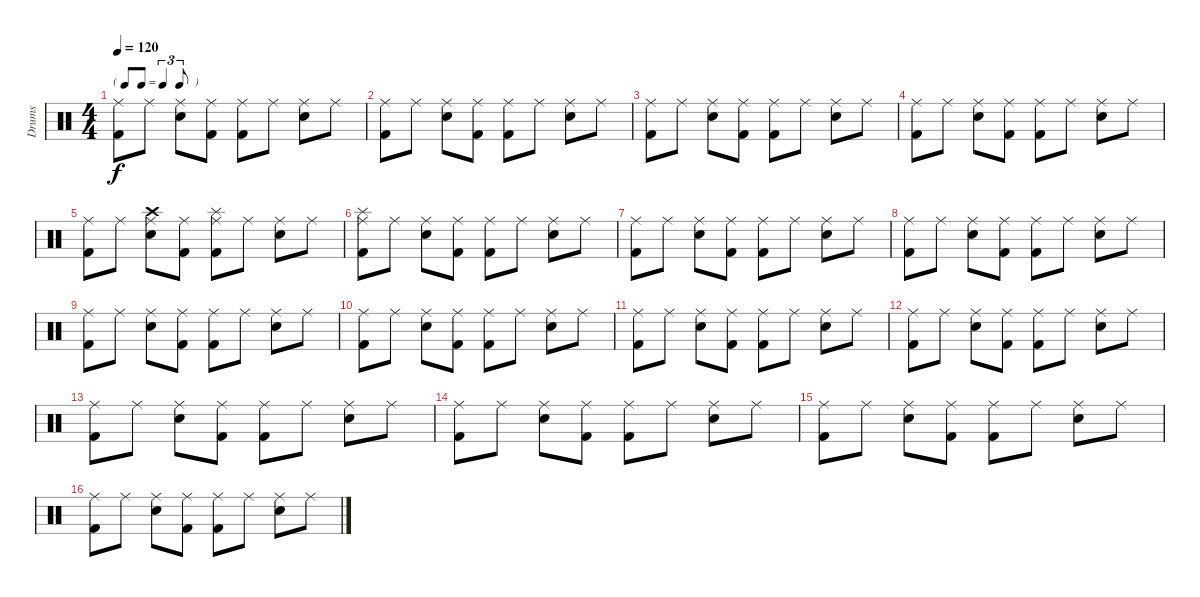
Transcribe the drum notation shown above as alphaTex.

\track ("Drums" "Drums") {instrument percussion}
\staff {score}
\articulation defaults
\ts (4 4)
\tf triplet8th
\tempo 120
\clef neutral
\ks c
("Ride (middle)" "Kick (hit) 2").8{dy f} "Ride (middle)".8 ("Ride (middle)" "Electric Snare (hit)").8 ("Ride (middle)" "Kick (hit) 2").8 ("Ride (middle)" "Kick (hit) 2").8 "Ride (middle)".8 ("Ride (middle)" "Electric Snare (hit)").8 "Ride (middle)".8 |
("Ride (middle)" "Kick (hit) 2").8 "Ride (middle)".8 ("Ride (middle)" "Electric Snare (hit)").8 ("Ride (middle)" "Kick (hit) 2").8 ("Ride (middle)" "Kick (hit) 2").8 "Ride (middle)".8 ("Ride (middle)" "Electric Snare (hit)").8 "Ride (middle)".8 |
("Ride (middle)" "Kick (hit) 2").8 "Ride (middle)".8 ("Ride (middle)" "Electric Snare (hit)").8 ("Ride (middle)" "Kick (hit) 2").8 ("Ride (middle)" "Kick (hit) 2").8 "Ride (middle)".8 ("Ride (middle)" "Electric Snare (hit)").8 "Ride (middle)".8 |
("Ride (middle)" "Kick (hit) 2").8 "Ride (middle)".8 ("Ride (middle)" "Electric Snare (hit)").8 ("Ride (middle)" "Kick (hit) 2").8 ("Ride (middle)" "Kick (hit) 2").8 "Ride (middle)".8 ("Ride (middle)" "Electric Snare (hit)").8 "Ride (middle)".8 |
("Ride (middle)" "Kick (hit) 2").8 "Ride (middle)".8 ("Ride (middle)" "Electric Snare (hit)" "Crash high (hit)").8 ("Ride (middle)" "Kick (hit) 2").8 ("Ride (middle)" "Kick (hit) 2" "Splash (hit)").8 "Ride (middle)".8 ("Ride (middle)" "Electric Snare (hit)").8 "Ride (middle)".8 |
("Ride (middle)" "Kick (hit) 2" "Splash (hit)").8 "Ride (middle)".8 ("Ride (middle)" "Electric Snare (hit)").8 ("Ride (middle)" "Kick (hit) 2").8 ("Ride (middle)" "Kick (hit) 2").8 "Ride (middle)".8 ("Ride (middle)" "Electric Snare (hit)").8 "Ride (middle)".8 |
("Ride (middle)" "Kick (hit) 2").8 "Ride (middle)".8 ("Ride (middle)" "Electric Snare (hit)").8 ("Ride (middle)" "Kick (hit) 2").8 ("Ride (middle)" "Kick (hit) 2").8 "Ride (middle)".8 ("Ride (middle)" "Electric Snare (hit)").8 "Ride (middle)".8 |
("Ride (middle)" "Kick (hit) 2").8 "Ride (middle)".8 ("Ride (middle)" "Electric Snare (hit)").8 ("Ride (middle)" "Kick (hit) 2").8 ("Ride (middle)" "Kick (hit) 2").8 "Ride (middle)".8 ("Ride (middle)" "Electric Snare (hit)").8 "Ride (middle)".8 |
("Ride (middle)" "Kick (hit) 2").8 "Ride (middle)".8 ("Ride (middle)" "Electric Snare (hit)").8 ("Ride (middle)" "Kick (hit) 2").8 ("Ride (middle)" "Kick (hit) 2").8 "Ride (middle)".8 ("Ride (middle)" "Electric Snare (hit)").8 "Ride (middle)".8 |
("Ride (middle)" "Kick (hit) 2").8 "Ride (middle)".8 ("Ride (middle)" "Electric Snare (hit)").8 ("Ride (middle)" "Kick (hit) 2").8 ("Ride (middle)" "Kick (hit) 2").8 "Ride (middle)".8 ("Ride (middle)" "Electric Snare (hit)").8 "Ride (middle)".8 |
("Ride (middle)" "Kick (hit) 2").8 "Ride (middle)".8 ("Ride (middle)" "Electric Snare (hit)").8 ("Ride (middle)" "Kick (hit) 2").8 ("Ride (middle)" "Kick (hit) 2").8 "Ride (middle)".8 ("Ride (middle)" "Electric Snare (hit)").8 "Ride (middle)".8 |
("Ride (middle)" "Kick (hit) 2").8 "Ride (middle)".8 ("Ride (middle)" "Electric Snare (hit)").8 ("Ride (middle)" "Kick (hit) 2").8 ("Ride (middle)" "Kick (hit) 2").8 "Ride (middle)".8 ("Ride (middle)" "Electric Snare (hit)").8 "Ride (middle)".8 |
("Ride (middle)" "Kick (hit) 2").8 "Ride (middle)".8 ("Ride (middle)" "Electric Snare (hit)").8 ("Ride (middle)" "Kick (hit) 2").8 ("Ride (middle)" "Kick (hit) 2").8 "Ride (middle)".8 ("Ride (middle)" "Electric Snare (hit)").8 "Ride (middle)".8 |
("Ride (middle)" "Kick (hit) 2").8 "Ride (middle)".8 ("Ride (middle)" "Electric Snare (hit)").8 ("Ride (middle)" "Kick (hit) 2").8 ("Ride (middle)" "Kick (hit) 2").8 "Ride (middle)".8 ("Ride (middle)" "Electric Snare (hit)").8 "Ride (middle)".8 |
("Ride (middle)" "Kick (hit) 2").8 "Ride (middle)".8 ("Ride (middle)" "Electric Snare (hit)").8 ("Ride (middle)" "Kick (hit) 2").8 ("Ride (middle)" "Kick (hit) 2").8 "Ride (middle)".8 ("Ride (middle)" "Electric Snare (hit)").8 "Ride (middle)".8 |
("Ride (middle)" "Kick (hit) 2").8 "Ride (middle)".8 ("Ride (middle)" "Electric Snare (hit)").8 ("Ride (middle)" "Kick (hit) 2").8 ("Ride (middle)" "Kick (hit) 2").8 "Ride (middle)".8 ("Ride (middle)" "Electric Snare (hit)").8 "Ride (middle)".8
